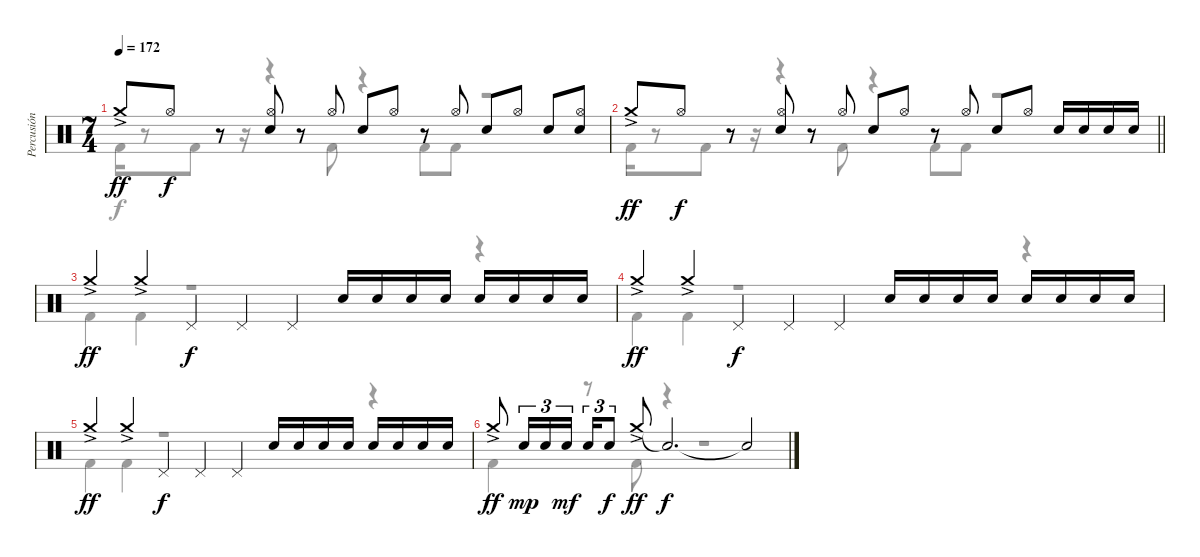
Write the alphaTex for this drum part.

\track ("Percusión" "Percusión") {instrument percussion}
\staff {score}
\articulation defaults
\voice
\ts (7 4)
\tempo 172
\clef neutral
\ks c "Crash medium (hit)"{ac}.8{dy ff} "Hi-Hat (open)".8{dy f}
r.8 ("Hi-Hat (open)" "Snare (hit) 2").8 r.8 "Hi-Hat (open)".8 "Snare (hit) 2".8 "Hi-Hat (open)".8 r.8 "Hi-Hat (open)".8 "Snare (hit) 2".8 "Hi-Hat (open)".8 "Electric Snare (hit)".8 ("Hi-Hat (open)" "Electric Snare (hit)").8 |
\barLineRight lightlight "Crash medium (hit)"{ac}.8{dy ff} "Hi-Hat (open)".8{dy f}
r.8 ("Hi-Hat (open)" "Snare (hit) 2").8 r.8 "Hi-Hat (open)".8 "Snare (hit) 2".8 "Hi-Hat (open)".8 r.8 "Hi-Hat (open)".8 "Snare (hit) 2".8 "Hi-Hat (open)".8 "Snare (hit) 2".16 "Snare (hit) 2".16 "Snare (hit) 2".16 "Snare (hit) 2".16 |
"Crash medium (hit)"{ac}.4{dy ff} "Crash medium (hit)"{ac}.4 "Pedal Hi-Hat (hit)".4{dy f} "Pedal Hi-Hat (hit)".4 "Pedal Hi-Hat (hit)".4 "Snare (hit) 2".16 "Snare (hit) 2".16 "Snare (hit) 2".16 "Snare (hit) 2".16 "Snare (hit) 2".16 "Snare (hit) 2".16 "Snare (hit) 2".16 "Snare (hit) 2".16 |
"Crash medium (hit)"{ac}.4{dy ff} "Crash medium (hit)"{ac}.4 "Pedal Hi-Hat (hit)".4{dy f} "Pedal Hi-Hat (hit)".4 "Pedal Hi-Hat (hit)".4 "Snare (hit) 2".16 "Snare (hit) 2".16 "Snare (hit) 2".16 "Snare (hit) 2".16 "Snare (hit) 2".16 "Snare (hit) 2".16 "Snare (hit) 2".16 "Snare (hit) 2".16 |
"Crash medium (hit)"{ac}.4{dy ff} "Crash medium (hit)"{ac}.4 "Pedal Hi-Hat (hit)".4{dy f} "Pedal Hi-Hat (hit)".4 "Pedal Hi-Hat (hit)".4 "Snare (hit) 2".16 "Snare (hit) 2".16 "Snare (hit) 2".16 "Snare (hit) 2".16 "Snare (hit) 2".16 "Snare (hit) 2".16 "Snare (hit) 2".16 "Snare (hit) 2".16 |
"Crash medium (hit)"{ac}.8{dy ff} "Electric Snare (hit)".16{tu (3 2) dy mp} "Electric Snare (hit)".16{tu (3 2)} "Electric Snare (hit)".16{tu (3 2) dy mf} "Electric Snare (hit)".16{tu (3 2)} "Electric Snare (hit)".8{tu (3 2) dy f} "Crash medium (hit)"{ac}.8{dy ff} "Snare (hit)"{t}.2{d dy f} "Snare (hit)"{t}.2 |
\voice
\clef neutral
\ottava regular
\simile none
\ks c "Kick (hit) 2".16{dy f}
r.8 "Kick (hit) 2".8 r.16 r.4 "Kick (hit) 2".8 r.4 "Kick (hit) 2".8 "Kick (hit) 2".8 r.2 |
\barLineRight lightlight "Kick (hit) 2".16
r.8 "Kick (hit) 2".8 r.16 r.4 "Kick (hit) 2".8 r.4 "Kick (hit) 2".8 "Kick (hit) 2".8 r.2 |
"Kick (hit) 2".4 "Kick (hit) 2".4 r.1 r.4 |
"Kick (hit) 2".4 "Kick (hit) 2".4 r.1 r.4 |
"Kick (hit) 2".4 "Kick (hit) 2".4 r.1 r.4 |
"Kick (hit) 2".4 r.8 "Kick (hit) 2".8 r.4 r.1 |
